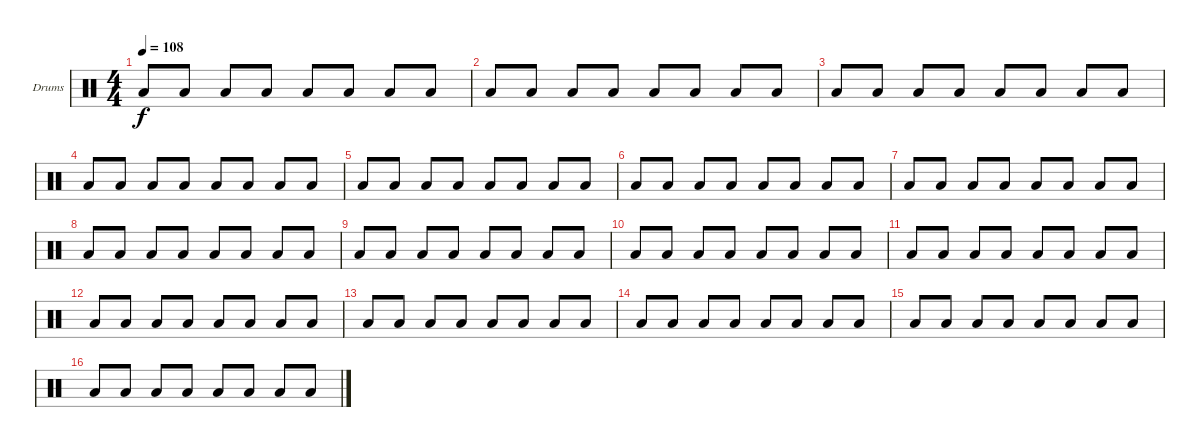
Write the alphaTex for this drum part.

\defaultSystemsLayout 4
\bracketExtendMode groupsimilarinstruments
\firstSystemTrackNameOrientation horizontal
\otherSystemsTrackNameOrientation horizontal
\track ("Drumkit" "Drums") {instrument percussion}
\staff {score}
\articulation defaults
\ts (4 4)
\tempo 108
\clef neutral
\ks c "Low Tom (hit)".8{dy f} "Low Tom (hit)".8 "Low Tom (hit)".8 "Low Tom (hit)".8 "Low Tom (hit)".8 "Low Tom (hit)".8 "Low Tom (hit)".8 "Low Tom (hit)".8
|
"Low Tom (hit)".8 "Low Tom (hit)".8 "Low Tom (hit)".8 "Low Tom (hit)".8 "Low Tom (hit)".8 "Low Tom (hit)".8 "Low Tom (hit)".8 "Low Tom (hit)".8 |
"Low Tom (hit)".8 "Low Tom (hit)".8 "Low Tom (hit)".8 "Low Tom (hit)".8 "Low Tom (hit)".8 "Low Tom (hit)".8 "Low Tom (hit)".8 "Low Tom (hit)".8 |
"Low Tom (hit)".8 "Low Tom (hit)".8 "Low Tom (hit)".8 "Low Tom (hit)".8 "Low Tom (hit)".8 "Low Tom (hit)".8 "Low Tom (hit)".8 "Low Tom (hit)".8 |
"Low Tom (hit)".8 "Low Tom (hit)".8 "Low Tom (hit)".8 "Low Tom (hit)".8 "Low Tom (hit)".8 "Low Tom (hit)".8 "Low Tom (hit)".8 "Low Tom (hit)".8 |
"Low Tom (hit)".8 "Low Tom (hit)".8 "Low Tom (hit)".8 "Low Tom (hit)".8 "Low Tom (hit)".8 "Low Tom (hit)".8 "Low Tom (hit)".8 "Low Tom (hit)".8 |
"Low Tom (hit)".8 "Low Tom (hit)".8 "Low Tom (hit)".8 "Low Tom (hit)".8 "Low Tom (hit)".8 "Low Tom (hit)".8 "Low Tom (hit)".8 "Low Tom (hit)".8 |
"Low Tom (hit)".8 "Low Tom (hit)".8 "Low Tom (hit)".8 "Low Tom (hit)".8 "Low Tom (hit)".8 "Low Tom (hit)".8 "Low Tom (hit)".8 "Low Tom (hit)".8 |
"Low Tom (hit)".8 "Low Tom (hit)".8 "Low Tom (hit)".8 "Low Tom (hit)".8 "Low Tom (hit)".8 "Low Tom (hit)".8 "Low Tom (hit)".8 "Low Tom (hit)".8 |
"Low Tom (hit)".8 "Low Tom (hit)".8 "Low Tom (hit)".8 "Low Tom (hit)".8 "Low Tom (hit)".8 "Low Tom (hit)".8 "Low Tom (hit)".8 "Low Tom (hit)".8 |
"Low Tom (hit)".8 "Low Tom (hit)".8 "Low Tom (hit)".8 "Low Tom (hit)".8 "Low Tom (hit)".8 "Low Tom (hit)".8 "Low Tom (hit)".8 "Low Tom (hit)".8 |
"Low Tom (hit)".8 "Low Tom (hit)".8 "Low Tom (hit)".8 "Low Tom (hit)".8 "Low Tom (hit)".8 "Low Tom (hit)".8 "Low Tom (hit)".8 "Low Tom (hit)".8 |
"Low Tom (hit)".8 "Low Tom (hit)".8 "Low Tom (hit)".8 "Low Tom (hit)".8 "Low Tom (hit)".8 "Low Tom (hit)".8 "Low Tom (hit)".8 "Low Tom (hit)".8 |
"Low Tom (hit)".8 "Low Tom (hit)".8 "Low Tom (hit)".8 "Low Tom (hit)".8 "Low Tom (hit)".8 "Low Tom (hit)".8 "Low Tom (hit)".8 "Low Tom (hit)".8 |
"Low Tom (hit)".8 "Low Tom (hit)".8 "Low Tom (hit)".8 "Low Tom (hit)".8 "Low Tom (hit)".8 "Low Tom (hit)".8 "Low Tom (hit)".8 "Low Tom (hit)".8 |
"Low Tom (hit)".8 "Low Tom (hit)".8 "Low Tom (hit)".8 "Low Tom (hit)".8 "Low Tom (hit)".8 "Low Tom (hit)".8 "Low Tom (hit)".8 "Low Tom (hit)".8
